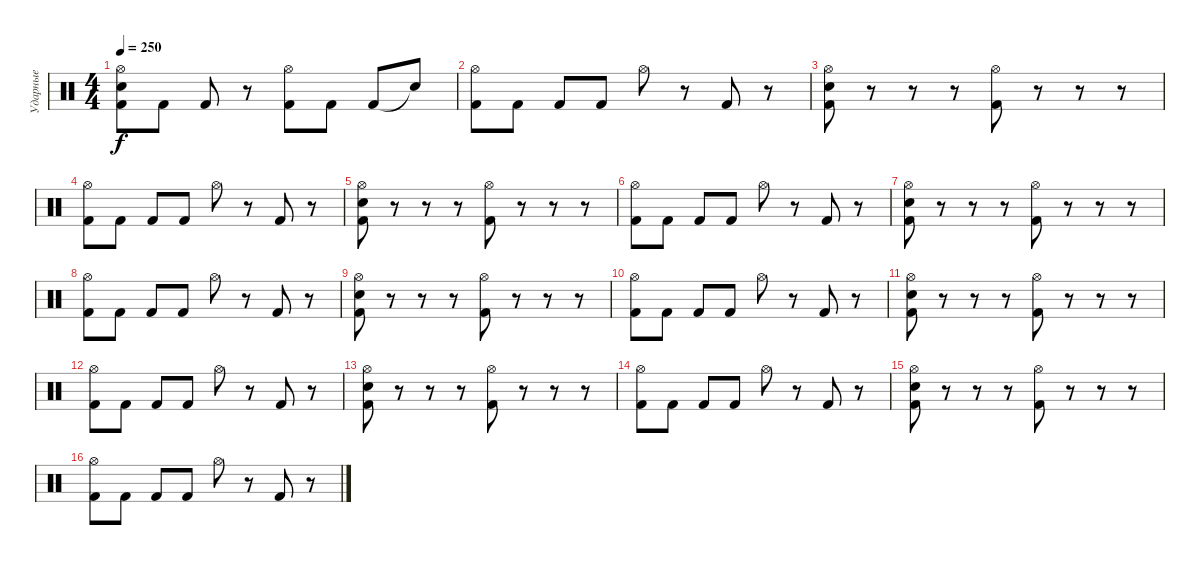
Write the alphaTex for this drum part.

\track ("Ударные" "Ударные") {instrument percussion}
\staff {score}
\articulation defaults
\ts (4 4)
\tempo 250
\clef neutral
\ks c
("Hi-Hat (open)" "Kick (hit) 2" "Electric Snare (hit)").8{dy f} "Kick (hit) 2".8 "Kick (hit) 2".8 r.8 ("Hi-Hat (open)" "Kick (hit) 2").8 "Kick (hit) 2".8 "Kick (hit) 2".8 "Snare (hit)"{t}.8 |
("Hi-Hat (open)" "Kick (hit) 2").8 "Kick (hit) 2".8 "Kick (hit) 2".8 "Kick (hit) 2".8 "Hi-Hat (open)".8 r.8 "Kick (hit) 2".8 r.8 |
("Hi-Hat (open)" "Kick (hit) 2" "Electric Snare (hit)").8 r.8 r.8 r.8 ("Hi-Hat (open)" "Kick (hit) 2").8 r.8 r.8 r.8 |
("Hi-Hat (open)" "Kick (hit) 2").8 "Kick (hit) 2".8 "Kick (hit) 2".8 "Kick (hit) 2".8 "Hi-Hat (open)".8 r.8 "Kick (hit) 2".8 r.8 |
("Hi-Hat (open)" "Kick (hit) 2" "Electric Snare (hit)").8 r.8 r.8 r.8 ("Hi-Hat (open)" "Kick (hit) 2").8 r.8 r.8 r.8 |
("Hi-Hat (open)" "Kick (hit) 2").8 "Kick (hit) 2".8 "Kick (hit) 2".8 "Kick (hit) 2".8 "Hi-Hat (open)".8 r.8 "Kick (hit) 2".8 r.8 |
("Hi-Hat (open)" "Kick (hit) 2" "Electric Snare (hit)").8 r.8 r.8 r.8 ("Hi-Hat (open)" "Kick (hit) 2").8 r.8 r.8 r.8 |
("Hi-Hat (open)" "Kick (hit) 2").8 "Kick (hit) 2".8 "Kick (hit) 2".8 "Kick (hit) 2".8 "Hi-Hat (open)".8 r.8 "Kick (hit) 2".8 r.8 |
("Hi-Hat (open)" "Kick (hit) 2" "Electric Snare (hit)").8 r.8 r.8 r.8 ("Hi-Hat (open)" "Kick (hit) 2").8 r.8 r.8 r.8 |
("Hi-Hat (open)" "Kick (hit) 2").8 "Kick (hit) 2".8 "Kick (hit) 2".8 "Kick (hit) 2".8 "Hi-Hat (open)".8 r.8 "Kick (hit) 2".8 r.8 |
("Hi-Hat (open)" "Kick (hit) 2" "Electric Snare (hit)").8 r.8 r.8 r.8 ("Hi-Hat (open)" "Kick (hit) 2").8 r.8 r.8 r.8 |
("Hi-Hat (open)" "Kick (hit) 2").8 "Kick (hit) 2".8 "Kick (hit) 2".8 "Kick (hit) 2".8 "Hi-Hat (open)".8 r.8 "Kick (hit) 2".8 r.8 |
("Hi-Hat (open)" "Kick (hit) 2" "Electric Snare (hit)").8 r.8 r.8 r.8 ("Hi-Hat (open)" "Kick (hit) 2").8 r.8 r.8 r.8 |
("Hi-Hat (open)" "Kick (hit) 2").8 "Kick (hit) 2".8 "Kick (hit) 2".8 "Kick (hit) 2".8 "Hi-Hat (open)".8 r.8 "Kick (hit) 2".8 r.8 |
("Hi-Hat (open)" "Kick (hit) 2" "Electric Snare (hit)").8 r.8 r.8 r.8 ("Hi-Hat (open)" "Kick (hit) 2").8 r.8 r.8 r.8 |
("Hi-Hat (open)" "Kick (hit) 2").8 "Kick (hit) 2".8 "Kick (hit) 2".8 "Kick (hit) 2".8 "Hi-Hat (open)".8 r.8 "Kick (hit) 2".8 r.8
